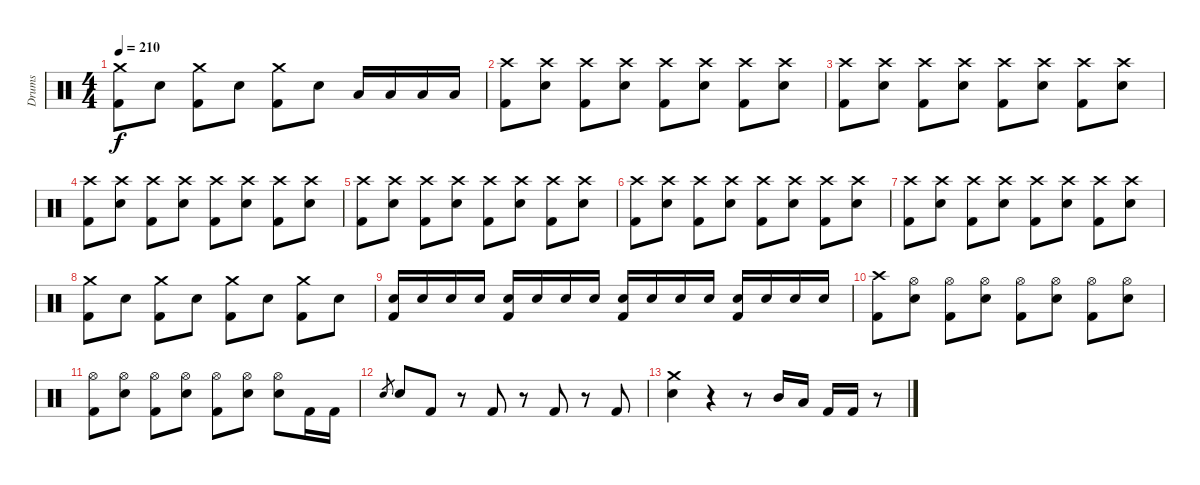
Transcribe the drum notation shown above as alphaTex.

\track ("Drums" "Drums") {instrument percussion}
\staff {score}
\articulation defaults
\ts (4 4)
\tempo 210
\clef neutral
\ks c
("Kick (hit) 2" "Crash medium (hit)").8{dy f} "Electric Snare (hit)".8 ("Kick (hit) 2" "Crash medium (hit)").8 "Electric Snare (hit)".8 ("Kick (hit) 2" "Crash medium (hit)").8 "Electric Snare (hit)".8 "Low Tom (hit)".16 "Low Tom (hit)".16 "Low Tom (hit)".16 "Low Tom (hit)".16 |
("Kick (hit) 2" "Crash high (hit)").8 ("Electric Snare (hit)" "Crash high (hit)").8 ("Kick (hit) 2" "Crash high (hit)").8 ("Electric Snare (hit)" "Crash high (hit)").8 ("Kick (hit) 2" "Crash high (hit)").8 ("Electric Snare (hit)" "Crash high (hit)").8 ("Kick (hit) 2" "Crash high (hit)").8 ("Electric Snare (hit)" "Crash high (hit)").8 |
("Kick (hit) 2" "Crash high (hit)").8 ("Electric Snare (hit)" "Crash high (hit)").8 ("Kick (hit) 2" "Crash high (hit)").8 ("Electric Snare (hit)" "Crash high (hit)").8 ("Kick (hit) 2" "Crash high (hit)").8 ("Electric Snare (hit)" "Crash high (hit)").8 ("Kick (hit) 2" "Crash high (hit)").8 ("Electric Snare (hit)" "Crash high (hit)").8 |
("Kick (hit) 2" "Crash high (hit)").8 ("Electric Snare (hit)" "Crash high (hit)").8 ("Kick (hit) 2" "Crash high (hit)").8 ("Electric Snare (hit)" "Crash high (hit)").8 ("Kick (hit) 2" "Crash high (hit)").8 ("Electric Snare (hit)" "Crash high (hit)").8 ("Kick (hit) 2" "Crash high (hit)").8 ("Electric Snare (hit)" "Crash high (hit)").8 |
("Kick (hit) 2" "Crash high (hit)").8 ("Electric Snare (hit)" "Crash high (hit)").8 ("Kick (hit) 2" "Crash high (hit)").8 ("Electric Snare (hit)" "Crash high (hit)").8 ("Kick (hit) 2" "Crash high (hit)").8 ("Electric Snare (hit)" "Crash high (hit)").8 ("Kick (hit) 2" "Crash high (hit)").8 ("Electric Snare (hit)" "Crash high (hit)").8 |
("Kick (hit) 2" "Crash high (hit)").8 ("Electric Snare (hit)" "Crash high (hit)").8 ("Kick (hit) 2" "Crash high (hit)").8 ("Electric Snare (hit)" "Crash high (hit)").8 ("Kick (hit) 2" "Crash high (hit)").8 ("Electric Snare (hit)" "Crash high (hit)").8 ("Kick (hit) 2" "Crash high (hit)").8 ("Electric Snare (hit)" "Crash high (hit)").8 |
("Kick (hit) 2" "Crash high (hit)").8 ("Electric Snare (hit)" "Crash high (hit)").8 ("Kick (hit) 2" "Crash high (hit)").8 ("Electric Snare (hit)" "Crash high (hit)").8 ("Kick (hit) 2" "Crash high (hit)").8 ("Electric Snare (hit)" "Crash high (hit)").8 ("Kick (hit) 2" "Crash high (hit)").8 ("Electric Snare (hit)" "Crash high (hit)").8 |
("Kick (hit) 2" "Crash medium (hit)").8 "Electric Snare (hit)".8 ("Kick (hit) 2" "Crash medium (hit)").8 "Electric Snare (hit)".8 ("Kick (hit) 2" "Crash medium (hit)").8 "Electric Snare (hit)".8 ("Kick (hit) 2" "Crash medium (hit)").8 "Electric Snare (hit)".8 |
("Kick (hit) 2" "Electric Snare (hit)").16 "Electric Snare (hit)".16 "Electric Snare (hit)".16 "Electric Snare (hit)".16 ("Kick (hit) 2" "Electric Snare (hit)").16 "Electric Snare (hit)".16 "Electric Snare (hit)".16 "Electric Snare (hit)".16 ("Kick (hit) 2" "Electric Snare (hit)").16 "Electric Snare (hit)".16 "Electric Snare (hit)".16 "Electric Snare (hit)".16 ("Kick (hit) 2" "Electric Snare (hit)").16 "Electric Snare (hit)".16 "Electric Snare (hit)".16 "Electric Snare (hit)".16 |
("Kick (hit) 2" "Crash high (hit)").8 ("Electric Snare (hit)" "Hi-Hat (open)").8 ("Kick (hit) 2" "Hi-Hat (open)").8 ("Electric Snare (hit)" "Hi-Hat (open)").8 ("Kick (hit) 2" "Hi-Hat (open)").8 ("Electric Snare (hit)" "Hi-Hat (open)").8 ("Kick (hit) 2" "Hi-Hat (open)").8 ("Electric Snare (hit)" "Hi-Hat (open)").8 |
("Kick (hit) 2" "Hi-Hat (open)").8 ("Electric Snare (hit)" "Hi-Hat (open)").8 ("Kick (hit) 2" "Hi-Hat (open)").8 ("Electric Snare (hit)" "Hi-Hat (open)").8 ("Kick (hit) 2" "Hi-Hat (open)").8 ("Electric Snare (hit)" "Hi-Hat (open)").8 ("Electric Snare (hit)" "Hi-Hat (open)").8 "Kick (hit) 2".16 "Kick (hit) 2".16 |
"Electric Snare (hit)".8{gr} "Electric Snare (hit)".8 "Kick (hit) 2".8 r.8 "Kick (hit) 2".8 r.8 "Kick (hit) 2".8 r.8 "Kick (hit) 2".8 |
("Electric Snare (hit)" "Crash medium (hit)").4 r.4 r.8 "Mid Tom (hit)".16 "Low Tom (hit)".16 "Kick (hit) 2".16 "Kick (hit) 2".16 r.8
